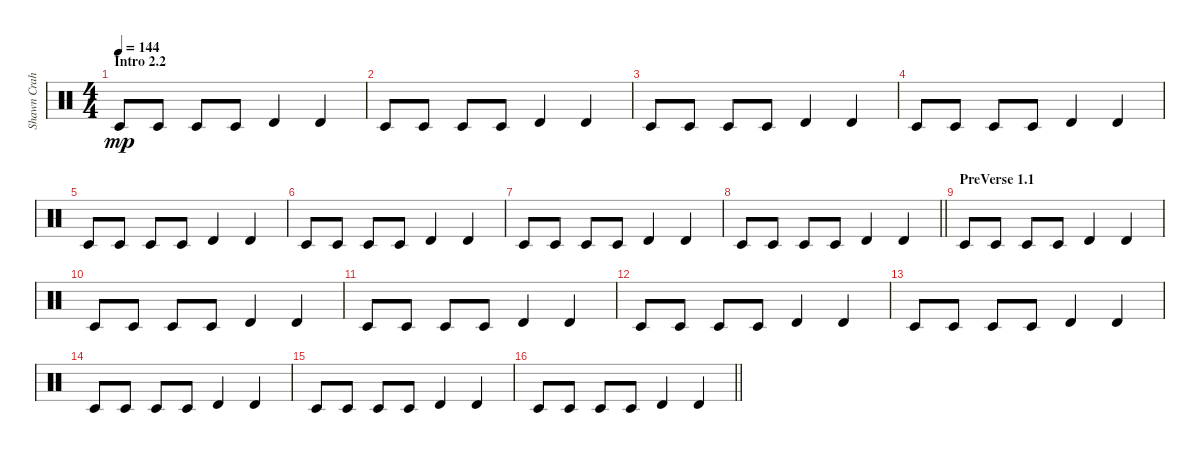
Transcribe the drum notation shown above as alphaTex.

\track ("Shawn Crahan" "Shawn Crah") {instrument percussion}
\staff {score}
\articulation defaults
\ts (4 4)
\section ("" "Intro 2.2")
\tempo 144
\clef neutral
\ks c "Timbale low (hit)".8{dy mp} "Timbale low (hit)".8 "Timbale low (hit)".8 "Timbale low (hit)".8 "Timbale high (hit)".4 "Timbale high (hit)".4
|
"Timbale low (hit)".8 "Timbale low (hit)".8 "Timbale low (hit)".8 "Timbale low (hit)".8 "Timbale high (hit)".4 "Timbale high (hit)".4 |
"Timbale low (hit)".8 "Timbale low (hit)".8 "Timbale low (hit)".8 "Timbale low (hit)".8 "Timbale high (hit)".4 "Timbale high (hit)".4 |
"Timbale low (hit)".8 "Timbale low (hit)".8 "Timbale low (hit)".8 "Timbale low (hit)".8 "Timbale high (hit)".4 "Timbale high (hit)".4 |
"Timbale low (hit)".8 "Timbale low (hit)".8 "Timbale low (hit)".8 "Timbale low (hit)".8 "Timbale high (hit)".4 "Timbale high (hit)".4 |
"Timbale low (hit)".8 "Timbale low (hit)".8 "Timbale low (hit)".8 "Timbale low (hit)".8 "Timbale high (hit)".4 "Timbale high (hit)".4 |
"Timbale low (hit)".8 "Timbale low (hit)".8 "Timbale low (hit)".8 "Timbale low (hit)".8 "Timbale high (hit)".4 "Timbale high (hit)".4 |
\barLineRight lightlight "Timbale low (hit)".8 "Timbale low (hit)".8 "Timbale low (hit)".8 "Timbale low (hit)".8 "Timbale high (hit)".4 "Timbale high (hit)".4
|
\section ("" "PreVerse 1.1")
"Timbale low (hit)".8 "Timbale low (hit)".8 "Timbale low (hit)".8 "Timbale low (hit)".8 "Timbale high (hit)".4 "Timbale high (hit)".4 |
"Timbale low (hit)".8 "Timbale low (hit)".8 "Timbale low (hit)".8 "Timbale low (hit)".8 "Timbale high (hit)".4 "Timbale high (hit)".4 |
"Timbale low (hit)".8 "Timbale low (hit)".8 "Timbale low (hit)".8 "Timbale low (hit)".8 "Timbale high (hit)".4 "Timbale high (hit)".4 |
"Timbale low (hit)".8 "Timbale low (hit)".8 "Timbale low (hit)".8 "Timbale low (hit)".8 "Timbale high (hit)".4 "Timbale high (hit)".4 |
"Timbale low (hit)".8 "Timbale low (hit)".8 "Timbale low (hit)".8 "Timbale low (hit)".8 "Timbale high (hit)".4 "Timbale high (hit)".4 |
"Timbale low (hit)".8 "Timbale low (hit)".8 "Timbale low (hit)".8 "Timbale low (hit)".8 "Timbale high (hit)".4 "Timbale high (hit)".4 |
"Timbale low (hit)".8 "Timbale low (hit)".8 "Timbale low (hit)".8 "Timbale low (hit)".8 "Timbale high (hit)".4 "Timbale high (hit)".4 |
\barLineRight lightlight "Timbale low (hit)".8 "Timbale low (hit)".8 "Timbale low (hit)".8 "Timbale low (hit)".8 "Timbale high (hit)".4 "Timbale high (hit)".4
